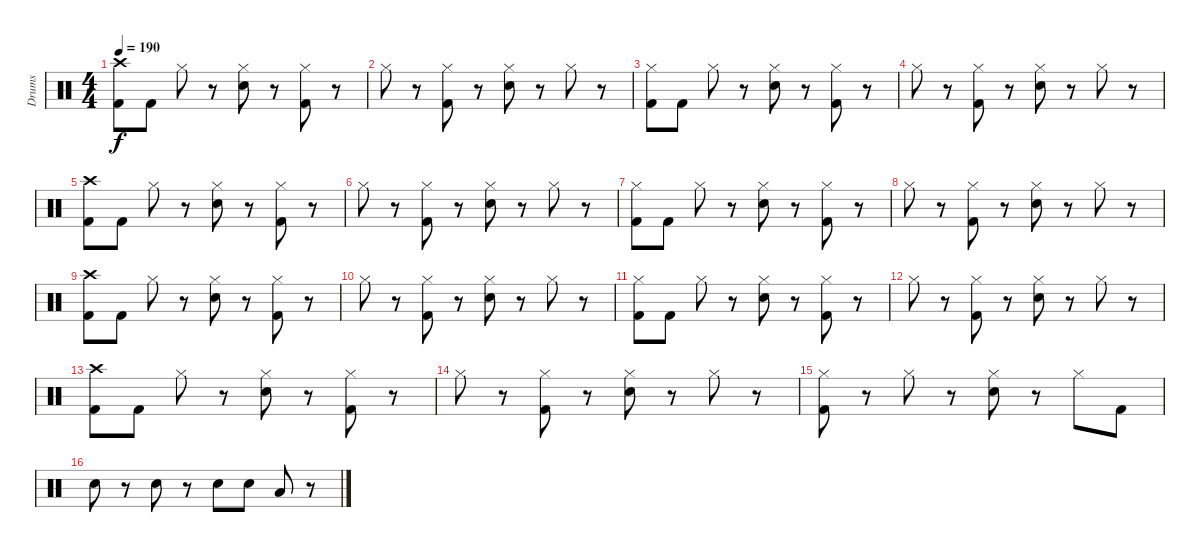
\track ("Drums" "Drums") {instrument percussion}
\staff {score}
\articulation defaults
\ts (4 4)
\tempo 190
\clef neutral
\ks c
("Crash high (hit)" "Kick (hit) 2").8{dy f} "Kick (hit) 2".8 "Hi-Hat (closed)".8 r.8 ("Hi-Hat (closed)" "Electric Snare (hit)").8 r.8 ("Hi-Hat (closed)" "Kick (hit) 2").8 r.8 |
"Hi-Hat (closed)".8 r.8 ("Hi-Hat (closed)" "Kick (hit) 2").8 r.8 ("Hi-Hat (closed)" "Electric Snare (hit)").8 r.8 "Hi-Hat (closed)".8 r.8 |
("Hi-Hat (closed)" "Kick (hit) 2").8 "Kick (hit) 2".8 "Hi-Hat (closed)".8 r.8 ("Hi-Hat (closed)" "Electric Snare (hit)").8 r.8 ("Hi-Hat (closed)" "Kick (hit) 2").8 r.8 |
"Hi-Hat (closed)".8 r.8 ("Hi-Hat (closed)" "Kick (hit) 2").8 r.8 ("Hi-Hat (closed)" "Electric Snare (hit)").8 r.8 "Hi-Hat (closed)".8 r.8 |
("Crash high (hit)" "Kick (hit) 2").8 "Kick (hit) 2".8 "Hi-Hat (closed)".8 r.8 ("Hi-Hat (closed)" "Electric Snare (hit)").8 r.8 ("Hi-Hat (closed)" "Kick (hit) 2").8 r.8 |
"Hi-Hat (closed)".8 r.8 ("Hi-Hat (closed)" "Kick (hit) 2").8 r.8 ("Hi-Hat (closed)" "Electric Snare (hit)").8 r.8 "Hi-Hat (closed)".8 r.8 |
("Hi-Hat (closed)" "Kick (hit) 2").8 "Kick (hit) 2".8 "Hi-Hat (closed)".8 r.8 ("Hi-Hat (closed)" "Electric Snare (hit)").8 r.8 ("Hi-Hat (closed)" "Kick (hit) 2").8 r.8 |
"Hi-Hat (closed)".8 r.8 ("Hi-Hat (closed)" "Kick (hit) 2").8 r.8 ("Hi-Hat (closed)" "Electric Snare (hit)").8 r.8 "Hi-Hat (closed)".8 r.8 |
("Crash high (hit)" "Kick (hit) 2").8 "Kick (hit) 2".8 "Hi-Hat (closed)".8 r.8 ("Hi-Hat (closed)" "Electric Snare (hit)").8 r.8 ("Hi-Hat (closed)" "Kick (hit) 2").8 r.8 |
"Hi-Hat (closed)".8 r.8 ("Hi-Hat (closed)" "Kick (hit) 2").8 r.8 ("Hi-Hat (closed)" "Electric Snare (hit)").8 r.8 "Hi-Hat (closed)".8 r.8 |
("Hi-Hat (closed)" "Kick (hit) 2").8 "Kick (hit) 2".8 "Hi-Hat (closed)".8 r.8 ("Hi-Hat (closed)" "Electric Snare (hit)").8 r.8 ("Hi-Hat (closed)" "Kick (hit) 2").8 r.8 |
"Hi-Hat (closed)".8 r.8 ("Hi-Hat (closed)" "Kick (hit) 2").8 r.8 ("Hi-Hat (closed)" "Electric Snare (hit)").8 r.8 "Hi-Hat (closed)".8 r.8 |
("Crash high (hit)" "Kick (hit) 2").8 "Kick (hit) 2".8 "Hi-Hat (closed)".8 r.8 ("Hi-Hat (closed)" "Electric Snare (hit)").8 r.8 ("Hi-Hat (closed)" "Kick (hit) 2").8 r.8 |
"Hi-Hat (closed)".8 r.8 ("Hi-Hat (closed)" "Kick (hit) 2").8 r.8 ("Hi-Hat (closed)" "Electric Snare (hit)").8 r.8 "Hi-Hat (closed)".8 r.8 |
("Hi-Hat (closed)" "Kick (hit) 2").8 r.8 "Hi-Hat (closed)".8 r.8 ("Hi-Hat (closed)" "Electric Snare (hit)").8 r.8 "Hi-Hat (closed)".8 "Kick (hit) 2".8 |
"Electric Snare (hit)".8 r.8 "Electric Snare (hit)".8 r.8 "Electric Snare (hit)".8 "Electric Snare (hit)".8 "Low Floor Tom (hit)".8 r.8
